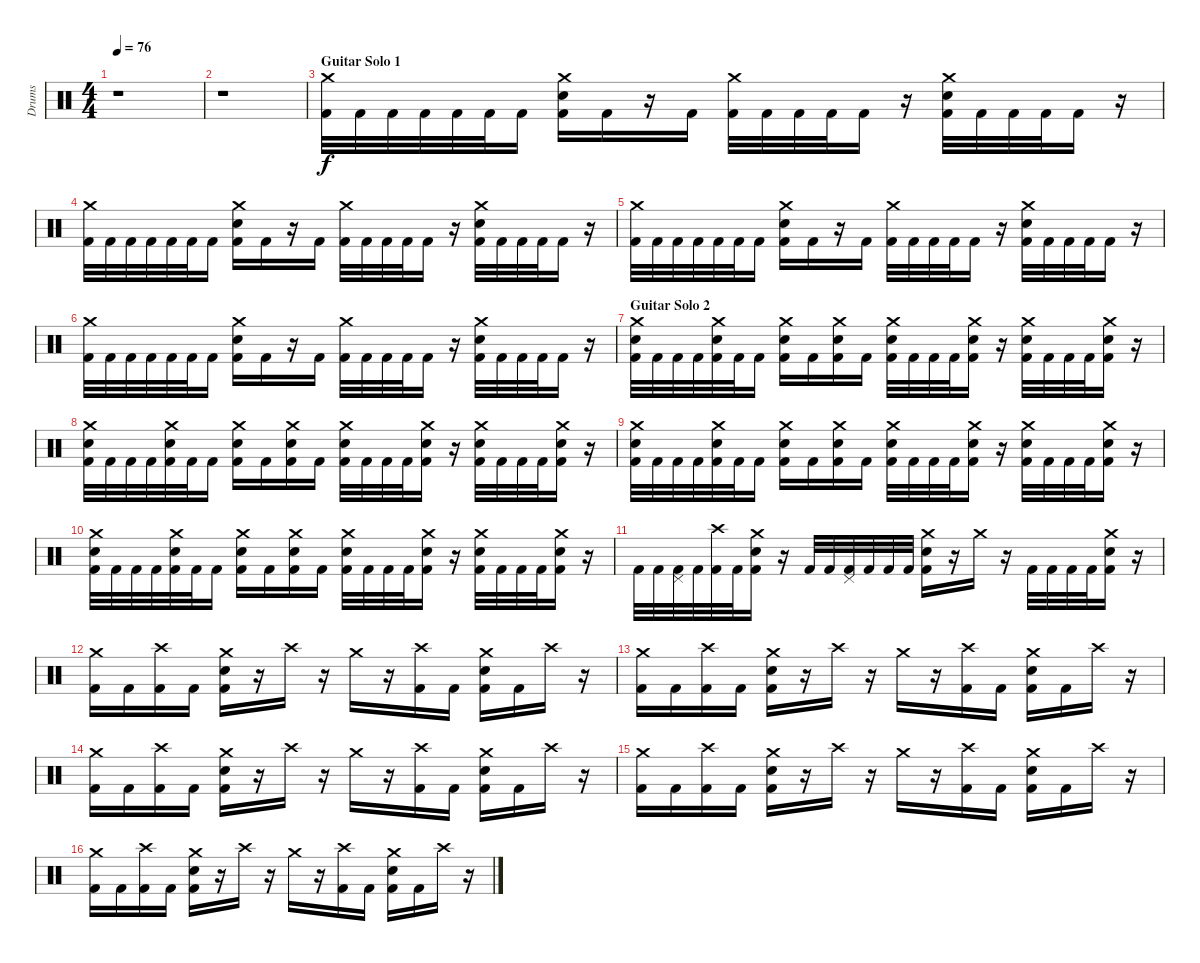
\track ("Drums" "Drums") {instrument percussion}
\staff {score}
\articulation defaults
\ts (4 4)
\tempo 76
\clef neutral
\ks c
r.1{dy f} |
r.1 |
\section ("" "Guitar Solo 1")
("Crash medium (hit)" "Kick (hit) 2").32 "Kick (hit) 2".32 "Kick (hit) 2".32 "Kick (hit) 2".32 "Kick (hit) 2".32 "Kick (hit) 2".32 "Kick (hit) 2".16 ("Crash medium (hit)" "Electric Snare (hit)" "Kick (hit) 2").16 "Kick (hit) 2".16 r.16 "Kick (hit) 2".16 ("Crash medium (hit)" "Kick (hit) 2").32 "Kick (hit) 2".32 "Kick (hit) 2".32 "Kick (hit) 2".32 "Kick (hit) 2".16 r.16 ("Crash medium (hit)" "Electric Snare (hit)" "Kick (hit) 2").32 "Kick (hit) 2".32 "Kick (hit) 2".32 "Kick (hit) 2".32 "Kick (hit) 2".16 r.16 |
("Crash medium (hit)" "Kick (hit) 2").32 "Kick (hit) 2".32 "Kick (hit) 2".32 "Kick (hit) 2".32 "Kick (hit) 2".32 "Kick (hit) 2".32 "Kick (hit) 2".16 ("Crash medium (hit)" "Electric Snare (hit)" "Kick (hit) 2").16 "Kick (hit) 2".16 r.16 "Kick (hit) 2".16 ("Crash medium (hit)" "Kick (hit) 2").32 "Kick (hit) 2".32 "Kick (hit) 2".32 "Kick (hit) 2".32 "Kick (hit) 2".16 r.16 ("Crash medium (hit)" "Electric Snare (hit)" "Kick (hit) 2").32 "Kick (hit) 2".32 "Kick (hit) 2".32 "Kick (hit) 2".32 "Kick (hit) 2".16 r.16 |
("Crash medium (hit)" "Kick (hit) 2").32 "Kick (hit) 2".32 "Kick (hit) 2".32 "Kick (hit) 2".32 "Kick (hit) 2".32 "Kick (hit) 2".32 "Kick (hit) 2".16 ("Crash medium (hit)" "Electric Snare (hit)" "Kick (hit) 2").16 "Kick (hit) 2".16 r.16 "Kick (hit) 2".16 ("Crash medium (hit)" "Kick (hit) 2").32 "Kick (hit) 2".32 "Kick (hit) 2".32 "Kick (hit) 2".32 "Kick (hit) 2".16 r.16 ("Crash medium (hit)" "Electric Snare (hit)" "Kick (hit) 2").32 "Kick (hit) 2".32 "Kick (hit) 2".32 "Kick (hit) 2".32 "Kick (hit) 2".16 r.16 |
("Crash medium (hit)" "Kick (hit) 2").32 "Kick (hit) 2".32 "Kick (hit) 2".32 "Kick (hit) 2".32 "Kick (hit) 2".32 "Kick (hit) 2".32 "Kick (hit) 2".16 ("Crash medium (hit)" "Electric Snare (hit)" "Kick (hit) 2").16 "Kick (hit) 2".16 r.16 "Kick (hit) 2".16 ("Crash medium (hit)" "Kick (hit) 2").32 "Kick (hit) 2".32 "Kick (hit) 2".32 "Kick (hit) 2".32 "Kick (hit) 2".16 r.16 ("Crash medium (hit)" "Electric Snare (hit)" "Kick (hit) 2").32 "Kick (hit) 2".32 "Kick (hit) 2".32 "Kick (hit) 2".32 "Kick (hit) 2".16 r.16 |
\section ("" "Guitar Solo 2")
("Crash medium (hit)" "Electric Snare (hit)" "Kick (hit) 2").32 "Kick (hit) 2".32 "Kick (hit) 2".32 "Kick (hit) 2".32 ("Crash medium (hit)" "Electric Snare (hit)" "Kick (hit) 2").32 "Kick (hit) 2".32 "Kick (hit) 2".16 ("Crash medium (hit)" "Electric Snare (hit)" "Kick (hit) 2").16 "Kick (hit) 2".16 ("Crash medium (hit)" "Electric Snare (hit)" "Kick (hit) 2").16 "Kick (hit) 2".16 ("Crash medium (hit)" "Electric Snare (hit)" "Kick (hit) 2").32 "Kick (hit) 2".32 "Kick (hit) 2".32 "Kick (hit) 2".32 ("Crash medium (hit)" "Electric Snare (hit)" "Kick (hit) 2").16 r.16 ("Crash medium (hit)" "Electric Snare (hit)" "Kick (hit) 2").32 "Kick (hit) 2".32 "Kick (hit) 2".32 "Kick (hit) 2".32 ("Crash medium (hit)" "Electric Snare (hit)" "Kick (hit) 2").16 r.16 |
("Crash medium (hit)" "Electric Snare (hit)" "Kick (hit) 2").32 "Kick (hit) 2".32 "Kick (hit) 2".32 "Kick (hit) 2".32 ("Crash medium (hit)" "Electric Snare (hit)" "Kick (hit) 2").32 "Kick (hit) 2".32 "Kick (hit) 2".16 ("Crash medium (hit)" "Electric Snare (hit)" "Kick (hit) 2").16 "Kick (hit) 2".16 ("Crash medium (hit)" "Electric Snare (hit)" "Kick (hit) 2").16 "Kick (hit) 2".16 ("Crash medium (hit)" "Electric Snare (hit)" "Kick (hit) 2").32 "Kick (hit) 2".32 "Kick (hit) 2".32 "Kick (hit) 2".32 ("Crash medium (hit)" "Electric Snare (hit)" "Kick (hit) 2").16 r.16 ("Crash medium (hit)" "Electric Snare (hit)" "Kick (hit) 2").32 "Kick (hit) 2".32 "Kick (hit) 2".32 "Kick (hit) 2".32 ("Crash medium (hit)" "Electric Snare (hit)" "Kick (hit) 2").16 r.16 |
("Crash medium (hit)" "Electric Snare (hit)" "Kick (hit) 2").32 "Kick (hit) 2".32 "Kick (hit) 2".32 "Kick (hit) 2".32 ("Crash medium (hit)" "Electric Snare (hit)" "Kick (hit) 2").32 "Kick (hit) 2".32 "Kick (hit) 2".16 ("Crash medium (hit)" "Electric Snare (hit)" "Kick (hit) 2").16 "Kick (hit) 2".16 ("Crash medium (hit)" "Electric Snare (hit)" "Kick (hit) 2").16 "Kick (hit) 2".16 ("Crash medium (hit)" "Electric Snare (hit)" "Kick (hit) 2").32 "Kick (hit) 2".32 "Kick (hit) 2".32 "Kick (hit) 2".32 ("Crash medium (hit)" "Electric Snare (hit)" "Kick (hit) 2").16 r.16 ("Crash medium (hit)" "Electric Snare (hit)" "Kick (hit) 2").32 "Kick (hit) 2".32 "Kick (hit) 2".32 "Kick (hit) 2".32 ("Crash medium (hit)" "Electric Snare (hit)" "Kick (hit) 2").16 r.16 |
("Crash medium (hit)" "Electric Snare (hit)" "Kick (hit) 2").32 "Kick (hit) 2".32 "Kick (hit) 2".32 "Kick (hit) 2".32 ("Crash medium (hit)" "Electric Snare (hit)" "Kick (hit) 2").32 "Kick (hit) 2".32 "Kick (hit) 2".16 ("Crash medium (hit)" "Electric Snare (hit)" "Kick (hit) 2").16 "Kick (hit) 2".16 ("Crash medium (hit)" "Electric Snare (hit)" "Kick (hit) 2").16 "Kick (hit) 2".16 ("Crash medium (hit)" "Electric Snare (hit)" "Kick (hit) 2").32 "Kick (hit) 2".32 "Kick (hit) 2".32 "Kick (hit) 2".32 ("Crash medium (hit)" "Electric Snare (hit)" "Kick (hit) 2").16 r.16 ("Crash medium (hit)" "Electric Snare (hit)" "Kick (hit) 2").32 "Kick (hit) 2".32 "Kick (hit) 2".32 "Kick (hit) 2".32 ("Crash medium (hit)" "Electric Snare (hit)" "Kick (hit) 2").16 r.16 |
\section ("" "")
"Kick (hit) 2".32 "Kick (hit) 2".32 ("Pedal Hi-Hat (hit)" "Kick (hit) 2").32 "Kick (hit) 2".32 ("Crash high (hit)" "Kick (hit) 2").32 "Kick (hit) 2".32 ("Crash medium (hit)" "Electric Snare (hit)" "Kick (hit) 2").16 r.16 "Kick (hit) 2".32 "Kick (hit) 2".32 ("Pedal Hi-Hat (hit)" "Kick (hit) 2").32 "Kick (hit) 2".32 "Kick (hit) 2".32 "Kick (hit) 2".32 ("Crash medium (hit)" "Electric Snare (hit)" "Kick (hit) 2").16 r.16 "Crash medium (hit)".16 r.16 "Kick (hit) 2".32 "Kick (hit) 2".32 "Kick (hit) 2".32 "Kick (hit) 2".32 ("Crash medium (hit)" "Electric Snare (hit)" "Kick (hit) 2").16 r.16 |
\section ("" "")
("Crash medium (hit)" "Kick (hit) 2").16 "Kick (hit) 2".16 ("Crash high (hit)" "Kick (hit) 2").16 "Kick (hit) 2".16 ("Crash medium (hit)" "Electric Snare (hit)" "Kick (hit) 2").16 r.16 "Crash high (hit)".16 r.16 "Crash medium (hit)".16 r.16 ("Crash high (hit)" "Kick (hit) 2").16 "Kick (hit) 2".16 ("Crash medium (hit)" "Electric Snare (hit)" "Kick (hit) 2").16 "Kick (hit) 2".16 "Crash high (hit)".16 r.16 |
("Crash medium (hit)" "Kick (hit) 2").16 "Kick (hit) 2".16 ("Crash high (hit)" "Kick (hit) 2").16 "Kick (hit) 2".16 ("Crash medium (hit)" "Electric Snare (hit)" "Kick (hit) 2").16 r.16 "Crash high (hit)".16 r.16 "Crash medium (hit)".16 r.16 ("Crash high (hit)" "Kick (hit) 2").16 "Kick (hit) 2".16 ("Crash medium (hit)" "Electric Snare (hit)" "Kick (hit) 2").16 "Kick (hit) 2".16 "Crash high (hit)".16 r.16 |
("Crash medium (hit)" "Kick (hit) 2").16 "Kick (hit) 2".16 ("Crash high (hit)" "Kick (hit) 2").16 "Kick (hit) 2".16 ("Crash medium (hit)" "Electric Snare (hit)" "Kick (hit) 2").16 r.16 "Crash high (hit)".16 r.16 "Crash medium (hit)".16 r.16 ("Crash high (hit)" "Kick (hit) 2").16 "Kick (hit) 2".16 ("Crash medium (hit)" "Electric Snare (hit)" "Kick (hit) 2").16 "Kick (hit) 2".16 "Crash high (hit)".16 r.16 |
("Crash medium (hit)" "Kick (hit) 2").16 "Kick (hit) 2".16 ("Crash high (hit)" "Kick (hit) 2").16 "Kick (hit) 2".16 ("Crash medium (hit)" "Electric Snare (hit)" "Kick (hit) 2").16 r.16 "Crash high (hit)".16 r.16 "Crash medium (hit)".16 r.16 ("Crash high (hit)" "Kick (hit) 2").16 "Kick (hit) 2".16 ("Crash medium (hit)" "Electric Snare (hit)" "Kick (hit) 2").16 "Kick (hit) 2".16 "Crash high (hit)".16 r.16 |
("Crash medium (hit)" "Kick (hit) 2").16 "Kick (hit) 2".16 ("Crash high (hit)" "Kick (hit) 2").16 "Kick (hit) 2".16 ("Crash medium (hit)" "Electric Snare (hit)" "Kick (hit) 2").16 r.16 "Crash high (hit)".16 r.16 "Crash medium (hit)".16 r.16 ("Crash high (hit)" "Kick (hit) 2").16 "Kick (hit) 2".16 ("Crash medium (hit)" "Electric Snare (hit)" "Kick (hit) 2").16 "Kick (hit) 2".16 "Crash high (hit)".16 r.16
